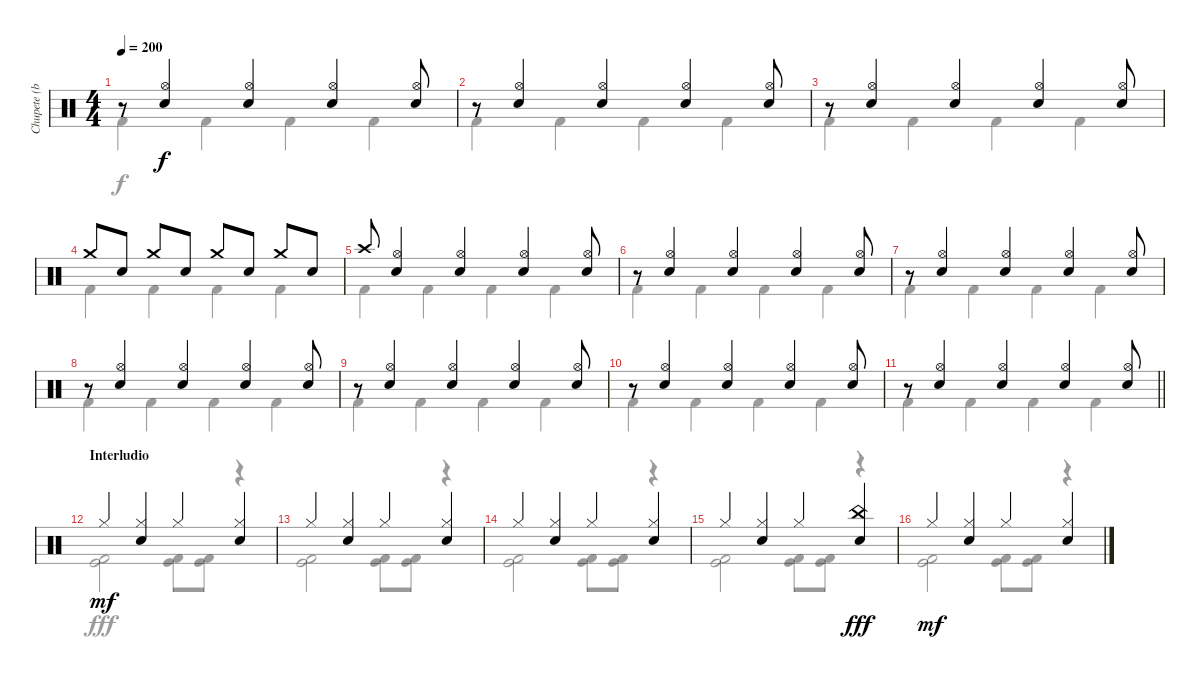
\track ("Chupete (batería)" "Chupete (b") {instrument percussion}
\staff {score}
\articulation defaults
\voice
\ts (4 4)
\tempo 200
\clef neutral
\ks c
r.8{dy f} ("Hi-Hat (open)" "Electric Snare (hit)").4 ("Hi-Hat (open)" "Electric Snare (hit)").4 ("Hi-Hat (open)" "Electric Snare (hit)").4 ("Hi-Hat (open)" "Electric Snare (hit)").8 |
r.8 ("Hi-Hat (open)" "Electric Snare (hit)").4 ("Hi-Hat (open)" "Electric Snare (hit)").4 ("Hi-Hat (open)" "Electric Snare (hit)").4 ("Hi-Hat (open)" "Electric Snare (hit)").8 |
r.8 ("Hi-Hat (open)" "Electric Snare (hit)").4 ("Hi-Hat (open)" "Electric Snare (hit)").4 ("Hi-Hat (open)" "Electric Snare (hit)").4 ("Hi-Hat (open)" "Electric Snare (hit)").8 |
"Crash medium (hit)".8 "Electric Snare (hit)".8 "Crash medium (hit)".8 "Electric Snare (hit)".8 "Crash medium (hit)".8 "Electric Snare (hit)".8 "Crash medium (hit)".8 "Electric Snare (hit)".8 |
"Crash high (hit)".8 ("Hi-Hat (open)" "Electric Snare (hit)").4 ("Hi-Hat (open)" "Electric Snare (hit)").4 ("Hi-Hat (open)" "Electric Snare (hit)").4 ("Hi-Hat (open)" "Electric Snare (hit)").8 |
r.8 ("Hi-Hat (open)" "Electric Snare (hit)").4 ("Hi-Hat (open)" "Electric Snare (hit)").4 ("Hi-Hat (open)" "Electric Snare (hit)").4 ("Hi-Hat (open)" "Electric Snare (hit)").8 |
r.8 ("Hi-Hat (open)" "Electric Snare (hit)").4 ("Hi-Hat (open)" "Electric Snare (hit)").4 ("Hi-Hat (open)" "Electric Snare (hit)").4 ("Hi-Hat (open)" "Electric Snare (hit)").8 |
r.8 ("Hi-Hat (open)" "Electric Snare (hit)").4 ("Hi-Hat (open)" "Electric Snare (hit)").4 ("Hi-Hat (open)" "Electric Snare (hit)").4 ("Hi-Hat (open)" "Electric Snare (hit)").8 |
r.8 ("Hi-Hat (open)" "Electric Snare (hit)").4 ("Hi-Hat (open)" "Electric Snare (hit)").4 ("Hi-Hat (open)" "Electric Snare (hit)").4 ("Hi-Hat (open)" "Electric Snare (hit)").8 |
r.8 ("Hi-Hat (open)" "Electric Snare (hit)").4 ("Hi-Hat (open)" "Electric Snare (hit)").4 ("Hi-Hat (open)" "Electric Snare (hit)").4 ("Hi-Hat (open)" "Electric Snare (hit)").8 |
\barLineRight lightlight
r.8 ("Hi-Hat (open)" "Electric Snare (hit)").4 ("Hi-Hat (open)" "Electric Snare (hit)").4 ("Hi-Hat (open)" "Electric Snare (hit)").4 ("Hi-Hat (open)" "Electric Snare (hit)").8 |
\section ("" "Interludio")
"Hi-Hat (closed)".4{dy mf} ("Hi-Hat (closed)" "Electric Snare (hit)").4 "Hi-Hat (closed)".4 ("Hi-Hat (closed)" "Electric Snare (hit)").4 |
"Hi-Hat (closed)".4 ("Hi-Hat (closed)" "Electric Snare (hit)").4 "Hi-Hat (closed)".4 ("Hi-Hat (closed)" "Electric Snare (hit)").4 |
"Hi-Hat (closed)".4 ("Hi-Hat (closed)" "Electric Snare (hit)").4 "Hi-Hat (closed)".4 ("Hi-Hat (closed)" "Electric Snare (hit)").4 |
"Hi-Hat (closed)".4 ("Hi-Hat (closed)" "Electric Snare (hit)").4 "Hi-Hat (closed)".4 ("China (hit)" "Electric Snare (hit)").4{dy fff} |
"Hi-Hat (closed)".4{dy mf} ("Hi-Hat (closed)" "Electric Snare (hit)").4 "Hi-Hat (closed)".4 ("Hi-Hat (closed)" "Electric Snare (hit)").4
\voice
\clef neutral
\ottava regular
\simile none
\ks c "Kick (hit) 2".4{dy f} "Kick (hit) 2".4 "Kick (hit) 2".4 "Kick (hit) 2".4
|
"Kick (hit) 2".4 "Kick (hit) 2".4 "Kick (hit) 2".4 "Kick (hit) 2".4 |
"Kick (hit) 2".4 "Kick (hit) 2".4 "Kick (hit) 2".4 "Kick (hit) 2".4 |
"Kick (hit) 2".4 "Kick (hit) 2".4 "Kick (hit) 2".4 "Kick (hit) 2".4 |
"Kick (hit) 2".4 "Kick (hit) 2".4 "Kick (hit) 2".4 "Kick (hit) 2".4 |
"Kick (hit) 2".4 "Kick (hit) 2".4 "Kick (hit) 2".4 "Kick (hit) 2".4 |
"Kick (hit) 2".4 "Kick (hit) 2".4 "Kick (hit) 2".4 "Kick (hit) 2".4 |
"Kick (hit) 2".4 "Kick (hit) 2".4 "Kick (hit) 2".4 "Kick (hit) 2".4 |
"Kick (hit) 2".4 "Kick (hit) 2".4 "Kick (hit) 2".4 "Kick (hit) 2".4 |
"Kick (hit) 2".4 "Kick (hit) 2".4 "Kick (hit) 2".4 "Kick (hit) 2".4 |
\barLineRight lightlight "Kick (hit) 2".4 "Kick (hit) 2".4 "Kick (hit) 2".4 "Kick (hit) 2".4
|
("Kick (hit)" "Kick (hit) 2").2{dy fff} ("Kick (hit)" "Kick (hit) 2").8 ("Kick (hit)" "Kick (hit) 2").8 r.4 |
("Kick (hit)" "Kick (hit) 2").2 ("Kick (hit)" "Kick (hit) 2").8 ("Kick (hit)" "Kick (hit) 2").8 r.4 |
("Kick (hit)" "Kick (hit) 2").2 ("Kick (hit)" "Kick (hit) 2").8 ("Kick (hit)" "Kick (hit) 2").8 r.4 |
("Kick (hit)" "Kick (hit) 2").2 ("Kick (hit)" "Kick (hit) 2").8 ("Kick (hit)" "Kick (hit) 2").8 r.4 |
("Kick (hit)" "Kick (hit) 2").2 ("Kick (hit)" "Kick (hit) 2").8 ("Kick (hit)" "Kick (hit) 2").8 r.4
